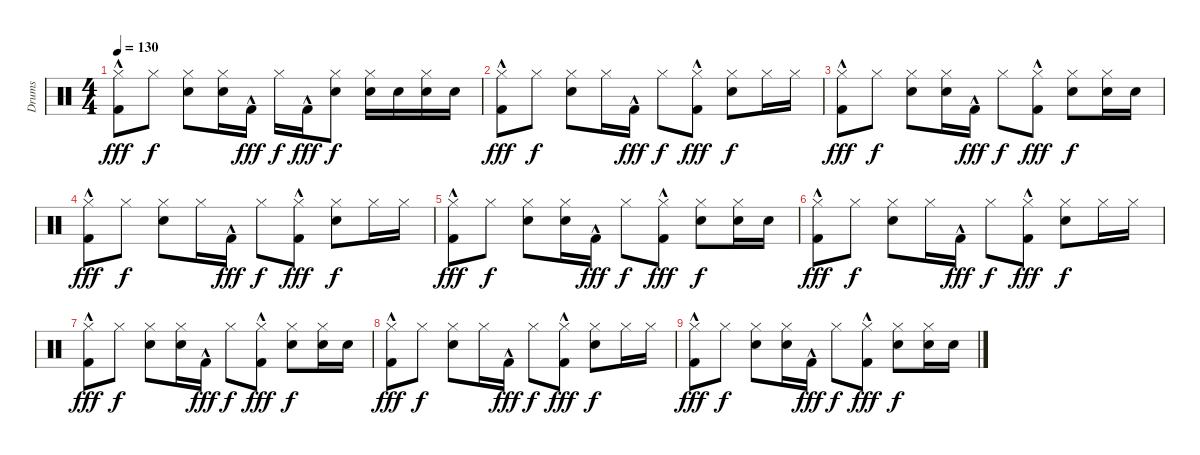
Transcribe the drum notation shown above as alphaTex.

\track ("Drums" "Drums") {instrument percussion}
\staff {score}
\articulation defaults
\ts (4 4)
\tempo 130
\clef neutral
\ks c
("Hi-Hat (closed)" "Kick (hit) 2"{hac}).8{dy fff} "Hi-Hat (closed)".8{dy f} ("Hi-Hat (closed)" "Snare (hit) 2").8 ("Hi-Hat (closed)" "Snare (hit) 2").16 "Kick (hit) 2"{hac}.16{dy fff} "Hi-Hat (closed)".16{dy f} "Kick (hit) 2"{hac}.16{dy fff} ("Hi-Hat (closed)" "Snare (hit) 2").8{dy f} ("Hi-Hat (closed)" "Snare (hit) 2").16 "Snare (hit) 2".16 ("Hi-Hat (closed)" "Snare (hit) 2").16 "Snare (hit) 2".16 |
("Hi-Hat (closed)" "Kick (hit) 2"{hac}).8{dy fff} "Hi-Hat (closed)".8{dy f} ("Hi-Hat (closed)" "Snare (hit) 2").8 "Hi-Hat (closed)".16 "Kick (hit) 2"{hac}.16{dy fff} "Hi-Hat (closed)".8{dy f} ("Hi-Hat (closed)" "Kick (hit) 2"{hac}).8{dy fff} ("Hi-Hat (closed)" "Snare (hit) 2").8{dy f} "Hi-Hat (closed)".16 "Hi-Hat (closed)".16 |
("Hi-Hat (closed)" "Kick (hit) 2"{hac}).8{dy fff} "Hi-Hat (closed)".8{dy f} ("Hi-Hat (closed)" "Snare (hit) 2").8 ("Hi-Hat (closed)" "Snare (hit) 2").16 "Kick (hit) 2"{hac}.16{dy fff} "Hi-Hat (closed)".8{dy f} ("Hi-Hat (closed)" "Kick (hit) 2"{hac}).8{dy fff} ("Hi-Hat (closed)" "Snare (hit) 2").8{dy f} ("Hi-Hat (closed)" "Snare (hit) 2").16 "Snare (hit) 2".16 |
("Hi-Hat (closed)" "Kick (hit) 2"{hac}).8{dy fff} "Hi-Hat (closed)".8{dy f} ("Hi-Hat (closed)" "Snare (hit) 2").8 "Hi-Hat (closed)".16 "Kick (hit) 2"{hac}.16{dy fff} "Hi-Hat (closed)".8{dy f} ("Hi-Hat (closed)" "Kick (hit) 2"{hac}).8{dy fff} ("Hi-Hat (closed)" "Snare (hit) 2").8{dy f} "Hi-Hat (closed)".16 "Hi-Hat (closed)".16 |
("Hi-Hat (closed)" "Kick (hit) 2"{hac}).8{dy fff} "Hi-Hat (closed)".8{dy f} ("Hi-Hat (closed)" "Snare (hit) 2").8 ("Hi-Hat (closed)" "Snare (hit) 2").16 "Kick (hit) 2"{hac}.16{dy fff} "Hi-Hat (closed)".8{dy f} ("Hi-Hat (closed)" "Kick (hit) 2"{hac}).8{dy fff} ("Hi-Hat (closed)" "Snare (hit) 2").8{dy f} ("Hi-Hat (closed)" "Snare (hit) 2").16 "Snare (hit) 2".16 |
("Hi-Hat (closed)" "Kick (hit) 2"{hac}).8{dy fff} "Hi-Hat (closed)".8{dy f} ("Hi-Hat (closed)" "Snare (hit) 2").8 "Hi-Hat (closed)".16 "Kick (hit) 2"{hac}.16{dy fff} "Hi-Hat (closed)".8{dy f} ("Hi-Hat (closed)" "Kick (hit) 2"{hac}).8{dy fff} ("Hi-Hat (closed)" "Snare (hit) 2").8{dy f} "Hi-Hat (closed)".16 "Hi-Hat (closed)".16 |
("Hi-Hat (closed)" "Kick (hit) 2"{hac}).8{dy fff} "Hi-Hat (closed)".8{dy f} ("Hi-Hat (closed)" "Snare (hit) 2").8 ("Hi-Hat (closed)" "Snare (hit) 2").16 "Kick (hit) 2"{hac}.16{dy fff} "Hi-Hat (closed)".8{dy f} ("Hi-Hat (closed)" "Kick (hit) 2"{hac}).8{dy fff} ("Hi-Hat (closed)" "Snare (hit) 2").8{dy f} ("Hi-Hat (closed)" "Snare (hit) 2").16 "Snare (hit) 2".16 |
("Hi-Hat (closed)" "Kick (hit) 2"{hac}).8{dy fff} "Hi-Hat (closed)".8{dy f} ("Hi-Hat (closed)" "Snare (hit) 2").8 "Hi-Hat (closed)".16 "Kick (hit) 2"{hac}.16{dy fff} "Hi-Hat (closed)".8{dy f} ("Hi-Hat (closed)" "Kick (hit) 2"{hac}).8{dy fff} ("Hi-Hat (closed)" "Snare (hit) 2").8{dy f} "Hi-Hat (closed)".16 "Hi-Hat (closed)".16 |
("Hi-Hat (closed)" "Kick (hit) 2"{hac}).8{dy fff} "Hi-Hat (closed)".8{dy f} ("Hi-Hat (closed)" "Snare (hit) 2").8 ("Hi-Hat (closed)" "Snare (hit) 2").16 "Kick (hit) 2"{hac}.16{dy fff} "Hi-Hat (closed)".8{dy f} ("Hi-Hat (closed)" "Kick (hit) 2"{hac}).8{dy fff} ("Hi-Hat (closed)" "Snare (hit) 2").8{dy f} ("Hi-Hat (closed)" "Snare (hit) 2").16 "Snare (hit) 2".16
